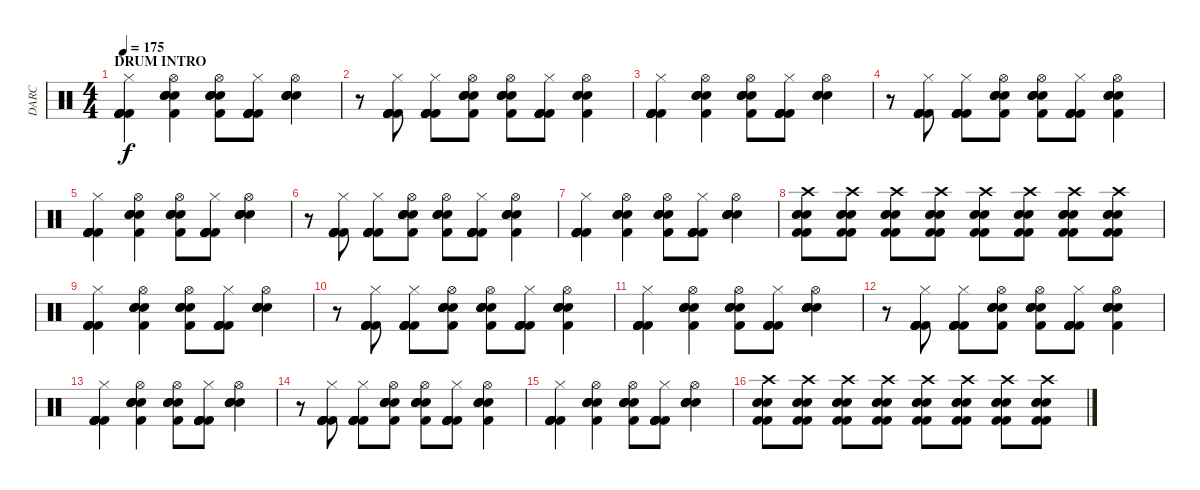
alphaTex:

\track ("DARC" "DARC") {instrument percussion}
\staff {score}
\articulation defaults
\ts (4 4)
\section ("" "DRUM INTRO")
\tempo 175
\clef neutral
\ks c
("Kick (hit) 2" "Kick (hit) 2" "Kick (hit) 2" "Kick (hit) 2" "Hi-Hat (closed)" "Kick (hit) 2").4{dy f} ("Electric Snare (hit)" "Electric Snare (hit)" "Electric Snare (hit)" "Kick (hit) 2" "Hi-Hat (open)" "Electric Snare (hit)").4 ("Electric Snare (hit)" "Kick (hit) 2" "Electric Snare (hit)" "Electric Snare (hit)" "Hi-Hat (open)" "Electric Snare (hit)").8 ("Kick (hit) 2" "Kick (hit) 2" "Kick (hit) 2" "Kick (hit) 2" "Hi-Hat (closed)" "Kick (hit) 2").8 ("Electric Snare (hit)" "Electric Snare (hit)" "Electric Snare (hit)" "Electric Snare (hit)" "Hi-Hat (open)" "Electric Snare (hit)").4 |
r.8 ("Kick (hit) 2" "Kick (hit) 2" "Kick (hit) 2" "Kick (hit) 2" "Hi-Hat (closed)" "Kick (hit) 2").8 ("Kick (hit) 2" "Kick (hit) 2" "Kick (hit) 2" "Kick (hit) 2" "Hi-Hat (closed)" "Kick (hit) 2").8 ("Kick (hit) 2" "Electric Snare (hit)" "Electric Snare (hit)" "Electric Snare (hit)" "Hi-Hat (open)" "Electric Snare (hit)").8 ("Kick (hit) 2" "Electric Snare (hit)" "Electric Snare (hit)" "Electric Snare (hit)" "Hi-Hat (open)" "Electric Snare (hit)").8 ("Kick (hit) 2" "Kick (hit) 2" "Kick (hit) 2" "Kick (hit) 2" "Hi-Hat (closed)" "Kick (hit) 2").8 ("Kick (hit) 2" "Electric Snare (hit)" "Electric Snare (hit)" "Electric Snare (hit)" "Hi-Hat (open)" "Electric Snare (hit)").4 |
("Kick (hit) 2" "Kick (hit) 2" "Kick (hit) 2" "Kick (hit) 2" "Hi-Hat (closed)" "Kick (hit) 2").4 ("Electric Snare (hit)" "Electric Snare (hit)" "Electric Snare (hit)" "Kick (hit) 2" "Hi-Hat (open)" "Electric Snare (hit)").4 ("Electric Snare (hit)" "Kick (hit) 2" "Electric Snare (hit)" "Electric Snare (hit)" "Hi-Hat (open)" "Electric Snare (hit)").8 ("Kick (hit) 2" "Kick (hit) 2" "Kick (hit) 2" "Kick (hit) 2" "Hi-Hat (closed)" "Kick (hit) 2").8 ("Electric Snare (hit)" "Electric Snare (hit)" "Electric Snare (hit)" "Electric Snare (hit)" "Hi-Hat (open)" "Electric Snare (hit)").4 |
r.8 ("Kick (hit) 2" "Kick (hit) 2" "Kick (hit) 2" "Kick (hit) 2" "Hi-Hat (closed)" "Kick (hit) 2").8 ("Kick (hit) 2" "Kick (hit) 2" "Kick (hit) 2" "Kick (hit) 2" "Hi-Hat (closed)" "Kick (hit) 2").8 ("Kick (hit) 2" "Electric Snare (hit)" "Electric Snare (hit)" "Electric Snare (hit)" "Hi-Hat (open)" "Electric Snare (hit)").8 ("Kick (hit) 2" "Electric Snare (hit)" "Electric Snare (hit)" "Electric Snare (hit)" "Hi-Hat (open)" "Electric Snare (hit)").8 ("Kick (hit) 2" "Kick (hit) 2" "Kick (hit) 2" "Kick (hit) 2" "Hi-Hat (closed)" "Kick (hit) 2").8 ("Kick (hit) 2" "Electric Snare (hit)" "Electric Snare (hit)" "Electric Snare (hit)" "Hi-Hat (open)" "Electric Snare (hit)").4 |
("Kick (hit) 2" "Kick (hit) 2" "Kick (hit) 2" "Kick (hit) 2" "Hi-Hat (closed)" "Kick (hit) 2").4 ("Electric Snare (hit)" "Electric Snare (hit)" "Electric Snare (hit)" "Kick (hit) 2" "Hi-Hat (open)" "Electric Snare (hit)").4 ("Electric Snare (hit)" "Kick (hit) 2" "Electric Snare (hit)" "Electric Snare (hit)" "Hi-Hat (open)" "Electric Snare (hit)").8 ("Kick (hit) 2" "Kick (hit) 2" "Kick (hit) 2" "Kick (hit) 2" "Hi-Hat (closed)" "Kick (hit) 2").8 ("Electric Snare (hit)" "Electric Snare (hit)" "Electric Snare (hit)" "Electric Snare (hit)" "Hi-Hat (open)" "Electric Snare (hit)").4 |
r.8 ("Kick (hit) 2" "Kick (hit) 2" "Kick (hit) 2" "Kick (hit) 2" "Hi-Hat (closed)" "Kick (hit) 2").8 ("Kick (hit) 2" "Kick (hit) 2" "Kick (hit) 2" "Kick (hit) 2" "Hi-Hat (closed)" "Kick (hit) 2").8 ("Kick (hit) 2" "Electric Snare (hit)" "Electric Snare (hit)" "Electric Snare (hit)" "Hi-Hat (open)" "Electric Snare (hit)").8 ("Kick (hit) 2" "Electric Snare (hit)" "Electric Snare (hit)" "Electric Snare (hit)" "Hi-Hat (open)" "Electric Snare (hit)").8 ("Kick (hit) 2" "Kick (hit) 2" "Kick (hit) 2" "Kick (hit) 2" "Hi-Hat (closed)" "Kick (hit) 2").8 ("Kick (hit) 2" "Electric Snare (hit)" "Electric Snare (hit)" "Electric Snare (hit)" "Hi-Hat (open)" "Electric Snare (hit)").4 |
("Kick (hit) 2" "Kick (hit) 2" "Kick (hit) 2" "Kick (hit) 2" "Hi-Hat (closed)" "Kick (hit) 2").4 ("Electric Snare (hit)" "Electric Snare (hit)" "Electric Snare (hit)" "Kick (hit) 2" "Hi-Hat (open)" "Electric Snare (hit)").4 ("Electric Snare (hit)" "Kick (hit) 2" "Electric Snare (hit)" "Electric Snare (hit)" "Hi-Hat (open)" "Electric Snare (hit)").8 ("Kick (hit) 2" "Kick (hit) 2" "Kick (hit) 2" "Kick (hit) 2" "Hi-Hat (closed)" "Kick (hit) 2").8 ("Electric Snare (hit)" "Electric Snare (hit)" "Electric Snare (hit)" "Electric Snare (hit)" "Hi-Hat (open)" "Electric Snare (hit)").4 |
("Kick (hit) 2" "Electric Snare (hit)" "Electric Snare (hit)" "Kick (hit) 2" "Crash high (hit)" "Electric Snare (hit)").8 ("Kick (hit) 2" "Electric Snare (hit)" "Electric Snare (hit)" "Kick (hit) 2" "Crash high (hit)" "Electric Snare (hit)").8 ("Kick (hit) 2" "Electric Snare (hit)" "Electric Snare (hit)" "Kick (hit) 2" "Crash high (hit)" "Electric Snare (hit)").8 ("Kick (hit) 2" "Electric Snare (hit)" "Electric Snare (hit)" "Kick (hit) 2" "Crash high (hit)" "Electric Snare (hit)").8 ("Kick (hit) 2" "Electric Snare (hit)" "Electric Snare (hit)" "Kick (hit) 2" "Crash high (hit)" "Electric Snare (hit)").8 ("Kick (hit) 2" "Electric Snare (hit)" "Electric Snare (hit)" "Kick (hit) 2" "Crash high (hit)" "Electric Snare (hit)").8 ("Kick (hit) 2" "Electric Snare (hit)" "Electric Snare (hit)" "Kick (hit) 2" "Crash high (hit)" "Electric Snare (hit)").8 ("Kick (hit) 2" "Electric Snare (hit)" "Electric Snare (hit)" "Kick (hit) 2" "Crash high (hit)" "Electric Snare (hit)").8 |
("Kick (hit) 2" "Kick (hit) 2" "Kick (hit) 2" "Kick (hit) 2" "Hi-Hat (closed)" "Kick (hit) 2").4 ("Electric Snare (hit)" "Electric Snare (hit)" "Electric Snare (hit)" "Kick (hit) 2" "Hi-Hat (open)" "Electric Snare (hit)").4 ("Electric Snare (hit)" "Kick (hit) 2" "Electric Snare (hit)" "Electric Snare (hit)" "Hi-Hat (open)" "Electric Snare (hit)").8 ("Kick (hit) 2" "Kick (hit) 2" "Kick (hit) 2" "Kick (hit) 2" "Hi-Hat (closed)" "Kick (hit) 2").8 ("Electric Snare (hit)" "Electric Snare (hit)" "Electric Snare (hit)" "Electric Snare (hit)" "Hi-Hat (open)" "Electric Snare (hit)").4 |
r.8 ("Kick (hit) 2" "Kick (hit) 2" "Kick (hit) 2" "Kick (hit) 2" "Hi-Hat (closed)" "Kick (hit) 2").8 ("Kick (hit) 2" "Kick (hit) 2" "Kick (hit) 2" "Kick (hit) 2" "Hi-Hat (closed)" "Kick (hit) 2").8 ("Kick (hit) 2" "Electric Snare (hit)" "Electric Snare (hit)" "Electric Snare (hit)" "Hi-Hat (open)" "Electric Snare (hit)").8 ("Kick (hit) 2" "Electric Snare (hit)" "Electric Snare (hit)" "Electric Snare (hit)" "Hi-Hat (open)" "Electric Snare (hit)").8 ("Kick (hit) 2" "Kick (hit) 2" "Kick (hit) 2" "Kick (hit) 2" "Hi-Hat (closed)" "Kick (hit) 2").8 ("Kick (hit) 2" "Electric Snare (hit)" "Electric Snare (hit)" "Electric Snare (hit)" "Hi-Hat (open)" "Electric Snare (hit)").4 |
("Kick (hit) 2" "Kick (hit) 2" "Kick (hit) 2" "Kick (hit) 2" "Hi-Hat (closed)" "Kick (hit) 2").4 ("Electric Snare (hit)" "Electric Snare (hit)" "Electric Snare (hit)" "Kick (hit) 2" "Hi-Hat (open)" "Electric Snare (hit)").4 ("Electric Snare (hit)" "Kick (hit) 2" "Electric Snare (hit)" "Electric Snare (hit)" "Hi-Hat (open)" "Electric Snare (hit)").8 ("Kick (hit) 2" "Kick (hit) 2" "Kick (hit) 2" "Kick (hit) 2" "Hi-Hat (closed)" "Kick (hit) 2").8 ("Electric Snare (hit)" "Electric Snare (hit)" "Electric Snare (hit)" "Electric Snare (hit)" "Hi-Hat (open)" "Electric Snare (hit)").4 |
r.8 ("Kick (hit) 2" "Kick (hit) 2" "Kick (hit) 2" "Kick (hit) 2" "Hi-Hat (closed)" "Kick (hit) 2").8 ("Kick (hit) 2" "Kick (hit) 2" "Kick (hit) 2" "Kick (hit) 2" "Hi-Hat (closed)" "Kick (hit) 2").8 ("Kick (hit) 2" "Electric Snare (hit)" "Electric Snare (hit)" "Electric Snare (hit)" "Hi-Hat (open)" "Electric Snare (hit)").8 ("Kick (hit) 2" "Electric Snare (hit)" "Electric Snare (hit)" "Electric Snare (hit)" "Hi-Hat (open)" "Electric Snare (hit)").8 ("Kick (hit) 2" "Kick (hit) 2" "Kick (hit) 2" "Kick (hit) 2" "Hi-Hat (closed)" "Kick (hit) 2").8 ("Kick (hit) 2" "Electric Snare (hit)" "Electric Snare (hit)" "Electric Snare (hit)" "Hi-Hat (open)" "Electric Snare (hit)").4 |
("Kick (hit) 2" "Kick (hit) 2" "Kick (hit) 2" "Kick (hit) 2" "Hi-Hat (closed)" "Kick (hit) 2").4 ("Electric Snare (hit)" "Electric Snare (hit)" "Electric Snare (hit)" "Kick (hit) 2" "Hi-Hat (open)" "Electric Snare (hit)").4 ("Electric Snare (hit)" "Kick (hit) 2" "Electric Snare (hit)" "Electric Snare (hit)" "Hi-Hat (open)" "Electric Snare (hit)").8 ("Kick (hit) 2" "Kick (hit) 2" "Kick (hit) 2" "Kick (hit) 2" "Hi-Hat (closed)" "Kick (hit) 2").8 ("Electric Snare (hit)" "Electric Snare (hit)" "Electric Snare (hit)" "Electric Snare (hit)" "Hi-Hat (open)" "Electric Snare (hit)").4 |
r.8 ("Kick (hit) 2" "Kick (hit) 2" "Kick (hit) 2" "Kick (hit) 2" "Hi-Hat (closed)" "Kick (hit) 2").8 ("Kick (hit) 2" "Kick (hit) 2" "Kick (hit) 2" "Kick (hit) 2" "Hi-Hat (closed)" "Kick (hit) 2").8 ("Kick (hit) 2" "Electric Snare (hit)" "Electric Snare (hit)" "Electric Snare (hit)" "Hi-Hat (open)" "Electric Snare (hit)").8 ("Kick (hit) 2" "Electric Snare (hit)" "Electric Snare (hit)" "Electric Snare (hit)" "Hi-Hat (open)" "Electric Snare (hit)").8 ("Kick (hit) 2" "Kick (hit) 2" "Kick (hit) 2" "Kick (hit) 2" "Hi-Hat (closed)" "Kick (hit) 2").8 ("Kick (hit) 2" "Electric Snare (hit)" "Electric Snare (hit)" "Electric Snare (hit)" "Hi-Hat (open)" "Electric Snare (hit)").4 |
("Kick (hit) 2" "Kick (hit) 2" "Kick (hit) 2" "Kick (hit) 2" "Hi-Hat (closed)" "Kick (hit) 2").4 ("Electric Snare (hit)" "Electric Snare (hit)" "Electric Snare (hit)" "Kick (hit) 2" "Hi-Hat (open)" "Electric Snare (hit)").4 ("Electric Snare (hit)" "Kick (hit) 2" "Electric Snare (hit)" "Electric Snare (hit)" "Hi-Hat (open)" "Electric Snare (hit)").8 ("Kick (hit) 2" "Kick (hit) 2" "Kick (hit) 2" "Kick (hit) 2" "Hi-Hat (closed)" "Kick (hit) 2").8 ("Electric Snare (hit)" "Electric Snare (hit)" "Electric Snare (hit)" "Electric Snare (hit)" "Hi-Hat (open)" "Electric Snare (hit)").4 |
("Kick (hit) 2" "Electric Snare (hit)" "Electric Snare (hit)" "Kick (hit) 2" "Crash high (hit)" "Electric Snare (hit)").8 ("Kick (hit) 2" "Electric Snare (hit)" "Electric Snare (hit)" "Kick (hit) 2" "Crash high (hit)" "Electric Snare (hit)").8 ("Kick (hit) 2" "Electric Snare (hit)" "Electric Snare (hit)" "Kick (hit) 2" "Crash high (hit)" "Electric Snare (hit)").8 ("Kick (hit) 2" "Electric Snare (hit)" "Electric Snare (hit)" "Kick (hit) 2" "Crash high (hit)" "Electric Snare (hit)").8 ("Kick (hit) 2" "Electric Snare (hit)" "Electric Snare (hit)" "Kick (hit) 2" "Crash high (hit)" "Electric Snare (hit)").8 ("Kick (hit) 2" "Electric Snare (hit)" "Electric Snare (hit)" "Kick (hit) 2" "Crash high (hit)" "Electric Snare (hit)").8 ("Kick (hit) 2" "Electric Snare (hit)" "Electric Snare (hit)" "Kick (hit) 2" "Crash high (hit)" "Electric Snare (hit)").8 ("Kick (hit) 2" "Electric Snare (hit)" "Electric Snare (hit)" "Kick (hit) 2" "Crash high (hit)" "Electric Snare (hit)").8
